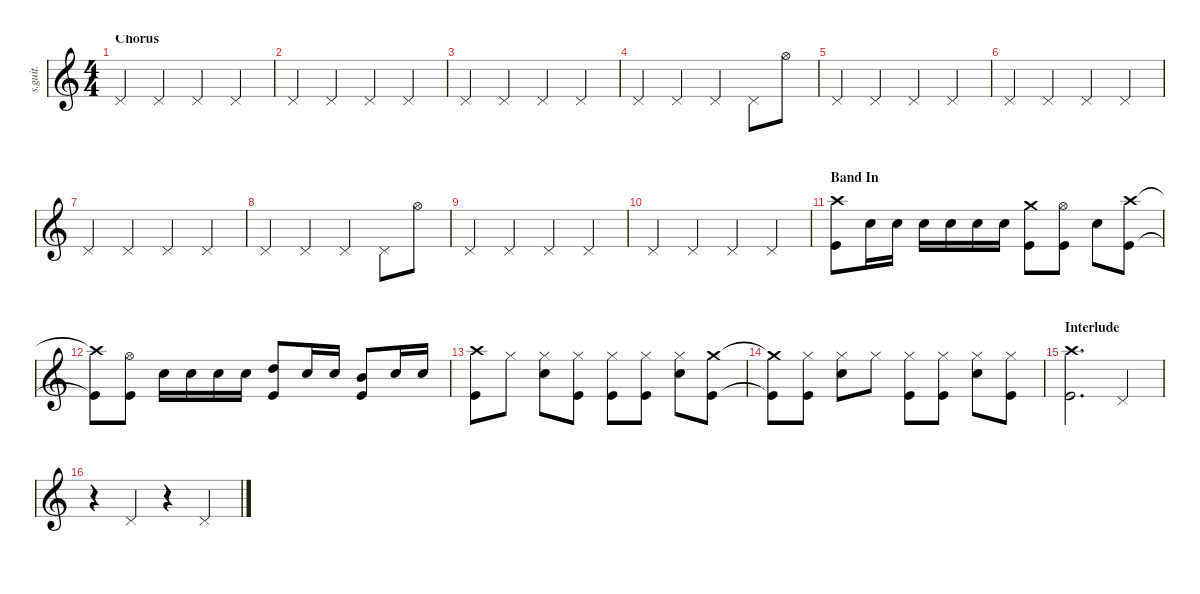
\defaultSystemsLayout 4
\hideDynamics
\bracketExtendMode nobrackets
\track ("Tre Cool" "s.guit.") {instrument percussion}
\staff {score}
\articulation defaults
\ts (4 4)
\section ("" "Chorus")
\tempo (175 hide)
\clef g2
\ks c "Pedal Hi-Hat (hit)".4{lyrics (0 "") lyrics (1 "") lyrics (2 "") lyrics (3 "") lyrics (4 "") dy f} "Pedal Hi-Hat (hit)".4{lyrics (0 "") lyrics (1 "") lyrics (2 "") lyrics (3 "") lyrics (4 "")} "Pedal Hi-Hat (hit)".4{lyrics (0 "") lyrics (1 "") lyrics (2 "") lyrics (3 "") lyrics (4 "")} "Pedal Hi-Hat (hit)".4{lyrics (0 "") lyrics (1 "") lyrics (2 "") lyrics (3 "") lyrics (4 "")}
|
"Pedal Hi-Hat (hit)".4{lyrics (0 "") lyrics (1 "") lyrics (2 "") lyrics (3 "") lyrics (4 "")} "Pedal Hi-Hat (hit)".4{lyrics (0 "") lyrics (1 "") lyrics (2 "") lyrics (3 "") lyrics (4 "")} "Pedal Hi-Hat (hit)".4{lyrics (0 "") lyrics (1 "") lyrics (2 "") lyrics (3 "") lyrics (4 "")} "Pedal Hi-Hat (hit)".4{lyrics (0 "") lyrics (1 "") lyrics (2 "") lyrics (3 "") lyrics (4 "")} |
"Pedal Hi-Hat (hit)".4{lyrics (0 "") lyrics (1 "") lyrics (2 "") lyrics (3 "") lyrics (4 "")} "Pedal Hi-Hat (hit)".4{lyrics (0 "") lyrics (1 "") lyrics (2 "") lyrics (3 "") lyrics (4 "")} "Pedal Hi-Hat (hit)".4{lyrics (0 "") lyrics (1 "") lyrics (2 "") lyrics (3 "") lyrics (4 "")} "Pedal Hi-Hat (hit)".4{lyrics (0 "") lyrics (1 "") lyrics (2 "") lyrics (3 "") lyrics (4 "")} |
"Pedal Hi-Hat (hit)".4{lyrics (0 "") lyrics (1 "") lyrics (2 "") lyrics (3 "") lyrics (4 "")} "Pedal Hi-Hat (hit)".4{lyrics (0 "") lyrics (1 "") lyrics (2 "") lyrics (3 "") lyrics (4 "")} "Pedal Hi-Hat (hit)".4{lyrics (0 "") lyrics (1 "") lyrics (2 "") lyrics (3 "") lyrics (4 "")} "Pedal Hi-Hat (hit)".8{lyrics (0 "") lyrics (1 "") lyrics (2 "") lyrics (3 "") lyrics (4 "")} "Hi-Hat (open)".8{lyrics (0 "") lyrics (1 "") lyrics (2 "") lyrics (3 "") lyrics (4 "")} |
"Pedal Hi-Hat (hit)".4{lyrics (0 "") lyrics (1 "") lyrics (2 "") lyrics (3 "") lyrics (4 "")} "Pedal Hi-Hat (hit)".4{lyrics (0 "") lyrics (1 "") lyrics (2 "") lyrics (3 "") lyrics (4 "")} "Pedal Hi-Hat (hit)".4{lyrics (0 "") lyrics (1 "") lyrics (2 "") lyrics (3 "") lyrics (4 "")} "Pedal Hi-Hat (hit)".4{lyrics (0 "") lyrics (1 "") lyrics (2 "") lyrics (3 "") lyrics (4 "")} |
"Pedal Hi-Hat (hit)".4{lyrics (0 "") lyrics (1 "") lyrics (2 "") lyrics (3 "") lyrics (4 "")} "Pedal Hi-Hat (hit)".4{lyrics (0 "") lyrics (1 "") lyrics (2 "") lyrics (3 "") lyrics (4 "")} "Pedal Hi-Hat (hit)".4{lyrics (0 "") lyrics (1 "") lyrics (2 "") lyrics (3 "") lyrics (4 "")} "Pedal Hi-Hat (hit)".4{lyrics (0 "") lyrics (1 "") lyrics (2 "") lyrics (3 "") lyrics (4 "")} |
"Pedal Hi-Hat (hit)".4{lyrics (0 "") lyrics (1 "") lyrics (2 "") lyrics (3 "") lyrics (4 "")} "Pedal Hi-Hat (hit)".4{lyrics (0 "") lyrics (1 "") lyrics (2 "") lyrics (3 "") lyrics (4 "")} "Pedal Hi-Hat (hit)".4{lyrics (0 "") lyrics (1 "") lyrics (2 "") lyrics (3 "") lyrics (4 "")} "Pedal Hi-Hat (hit)".4{lyrics (0 "") lyrics (1 "") lyrics (2 "") lyrics (3 "") lyrics (4 "")} |
"Pedal Hi-Hat (hit)".4{lyrics (0 "") lyrics (1 "") lyrics (2 "") lyrics (3 "") lyrics (4 "")} "Pedal Hi-Hat (hit)".4{lyrics (0 "") lyrics (1 "") lyrics (2 "") lyrics (3 "") lyrics (4 "")} "Pedal Hi-Hat (hit)".4{lyrics (0 "") lyrics (1 "") lyrics (2 "") lyrics (3 "") lyrics (4 "")} "Pedal Hi-Hat (hit)".8{lyrics (0 "") lyrics (1 "") lyrics (2 "") lyrics (3 "") lyrics (4 "")} "Hi-Hat (open)".8{lyrics (0 "") lyrics (1 "") lyrics (2 "") lyrics (3 "") lyrics (4 "")} |
"Pedal Hi-Hat (hit)".4{lyrics (0 "") lyrics (1 "") lyrics (2 "") lyrics (3 "") lyrics (4 "")} "Pedal Hi-Hat (hit)".4{lyrics (0 "") lyrics (1 "") lyrics (2 "") lyrics (3 "") lyrics (4 "")} "Pedal Hi-Hat (hit)".4{lyrics (0 "") lyrics (1 "") lyrics (2 "") lyrics (3 "") lyrics (4 "")} "Pedal Hi-Hat (hit)".4{lyrics (0 "") lyrics (1 "") lyrics (2 "") lyrics (3 "") lyrics (4 "")} |
"Pedal Hi-Hat (hit)".4{lyrics (0 "") lyrics (1 "") lyrics (2 "") lyrics (3 "") lyrics (4 "")} "Pedal Hi-Hat (hit)".4{lyrics (0 "") lyrics (1 "") lyrics (2 "") lyrics (3 "") lyrics (4 "")} "Pedal Hi-Hat (hit)".4{lyrics (0 "") lyrics (1 "") lyrics (2 "") lyrics (3 "") lyrics (4 "")} "Pedal Hi-Hat (hit)".4{lyrics (0 "") lyrics (1 "") lyrics (2 "") lyrics (3 "") lyrics (4 "")} |
\section ("" "Band In")
("Crash high (hit)" "Kick (hit)").8{lyrics (0 "") lyrics (1 "") lyrics (2 "") lyrics (3 "") lyrics (4 "")} "Snare (hit) 2".16{lyrics (0 "") lyrics (1 "") lyrics (2 "") lyrics (3 "") lyrics (4 "")} "Snare (hit) 2".16{lyrics (0 "") lyrics (1 "") lyrics (2 "") lyrics (3 "") lyrics (4 "")} "Snare (hit) 2".16{lyrics (0 "") lyrics (1 "") lyrics (2 "") lyrics (3 "") lyrics (4 "")} "Snare (hit) 2".16{lyrics (0 "") lyrics (1 "") lyrics (2 "") lyrics (3 "") lyrics (4 "")} "Snare (hit) 2".16{lyrics (0 "") lyrics (1 "") lyrics (2 "") lyrics (3 "") lyrics (4 "")} "Snare (hit) 2".16{lyrics (0 "") lyrics (1 "") lyrics (2 "") lyrics (3 "") lyrics (4 "")} ("Crash medium (hit)" "Kick (hit)").8{lyrics (0 "") lyrics (1 "") lyrics (2 "") lyrics (3 "") lyrics (4 "")} ("Hi-Hat (open)" "Kick (hit)").8{lyrics (0 "") lyrics (1 "") lyrics (2 "") lyrics (3 "") lyrics (4 "")} "Snare (hit) 2".8{lyrics (0 "") lyrics (1 "") lyrics (2 "") lyrics (3 "") lyrics (4 "")} ("Crash high (hit)" "Kick (hit)").8{lyrics (0 "") lyrics (1 "") lyrics (2 "") lyrics (3 "") lyrics (4 "")} |
("Crash high (hit)"{t} "Kick (hit)"{t}).8{lyrics (0 "") lyrics (1 "") lyrics (2 "") lyrics (3 "") lyrics (4 "")} ("Hi-Hat (open)" "Kick (hit)").8{lyrics (0 "") lyrics (1 "") lyrics (2 "") lyrics (3 "") lyrics (4 "")} "Snare (hit) 2".16{lyrics (0 "") lyrics (1 "") lyrics (2 "") lyrics (3 "") lyrics (4 "")} "Snare (hit) 2".16{lyrics (0 "") lyrics (1 "") lyrics (2 "") lyrics (3 "") lyrics (4 "")} "Snare (hit) 2".16{lyrics (0 "") lyrics (1 "") lyrics (2 "") lyrics (3 "") lyrics (4 "")} "Snare (hit) 2".16{lyrics (0 "") lyrics (1 "") lyrics (2 "") lyrics (3 "") lyrics (4 "")} ("High Tom (hit)" "Kick (hit)").8{lyrics (0 "") lyrics (1 "") lyrics (2 "") lyrics (3 "") lyrics (4 "") dy fff} "Snare (hit) 2".16{lyrics (0 "") lyrics (1 "") lyrics (2 "") lyrics (3 "") lyrics (4 "")} "Snare (hit) 2".16{lyrics (0 "") lyrics (1 "") lyrics (2 "") lyrics (3 "") lyrics (4 "")} ("Mid Tom (hit)" "Kick (hit)").8{lyrics (0 "") lyrics (1 "") lyrics (2 "") lyrics (3 "") lyrics (4 "")} "Snare (hit) 2".16{lyrics (0 "") lyrics (1 "") lyrics (2 "") lyrics (3 "") lyrics (4 "")} "Snare (hit) 2".16{lyrics (0 "") lyrics (1 "") lyrics (2 "") lyrics (3 "") lyrics (4 "")} |
("Crash high (hit)" "Kick (hit)").8{lyrics (0 "") lyrics (1 "") lyrics (2 "") lyrics (3 "") lyrics (4 "")} "Hi-Hat (closed)".8{lyrics (0 "") lyrics (1 "") lyrics (2 "") lyrics (3 "") lyrics (4 "")} ("Hi-Hat (closed)" "Snare (hit) 2").8{lyrics (0 "") lyrics (1 "") lyrics (2 "") lyrics (3 "") lyrics (4 "")} ("Hi-Hat (closed)" "Kick (hit)").8{lyrics (0 "") lyrics (1 "") lyrics (2 "") lyrics (3 "") lyrics (4 "")} ("Hi-Hat (closed)" "Kick (hit)").8{lyrics (0 "") lyrics (1 "") lyrics (2 "") lyrics (3 "") lyrics (4 "")} ("Hi-Hat (closed)" "Kick (hit)").8{lyrics (0 "") lyrics (1 "") lyrics (2 "") lyrics (3 "") lyrics (4 "")} ("Hi-Hat (closed)" "Snare (hit) 2").8{lyrics (0 "") lyrics (1 "") lyrics (2 "") lyrics (3 "") lyrics (4 "")} ("Crash medium (hit)" "Kick (hit)").8{lyrics (0 "") lyrics (1 "") lyrics (2 "") lyrics (3 "") lyrics (4 "")} |
("Crash medium (hit)"{t} "Kick (hit)"{t}).8{lyrics (0 "") lyrics (1 "") lyrics (2 "") lyrics (3 "") lyrics (4 "")} ("Hi-Hat (closed)" "Kick (hit)").8{lyrics (0 "") lyrics (1 "") lyrics (2 "") lyrics (3 "") lyrics (4 "")} ("Hi-Hat (closed)" "Snare (hit) 2").8{lyrics (0 "") lyrics (1 "") lyrics (2 "") lyrics (3 "") lyrics (4 "")} "Hi-Hat (closed)".8{lyrics (0 "") lyrics (1 "") lyrics (2 "") lyrics (3 "") lyrics (4 "")} ("Hi-Hat (closed)" "Kick (hit)").8{lyrics (0 "") lyrics (1 "") lyrics (2 "") lyrics (3 "") lyrics (4 "")} ("Hi-Hat (closed)" "Kick (hit)").8{lyrics (0 "") lyrics (1 "") lyrics (2 "") lyrics (3 "") lyrics (4 "")} ("Hi-Hat (closed)" "Snare (hit) 2").8{lyrics (0 "") lyrics (1 "") lyrics (2 "") lyrics (3 "") lyrics (4 "")} ("Hi-Hat (closed)" "Kick (hit)").8{lyrics (0 "") lyrics (1 "") lyrics (2 "") lyrics (3 "") lyrics (4 "")} |
\section ("" "Interlude")
("Crash high (hit)" "Kick (hit)").2{d lyrics (0 "") lyrics (1 "") lyrics (2 "") lyrics (3 "") lyrics (4 "")} "Pedal Hi-Hat (hit)".4{lyrics (0 "") lyrics (1 "") lyrics (2 "") lyrics (3 "") lyrics (4 "")} |
r.4 "Pedal Hi-Hat (hit)".4{lyrics (0 "") lyrics (1 "") lyrics (2 "") lyrics (3 "") lyrics (4 "")} r.4 "Pedal Hi-Hat (hit)".4{lyrics (0 "") lyrics (1 "") lyrics (2 "") lyrics (3 "") lyrics (4 "")}
